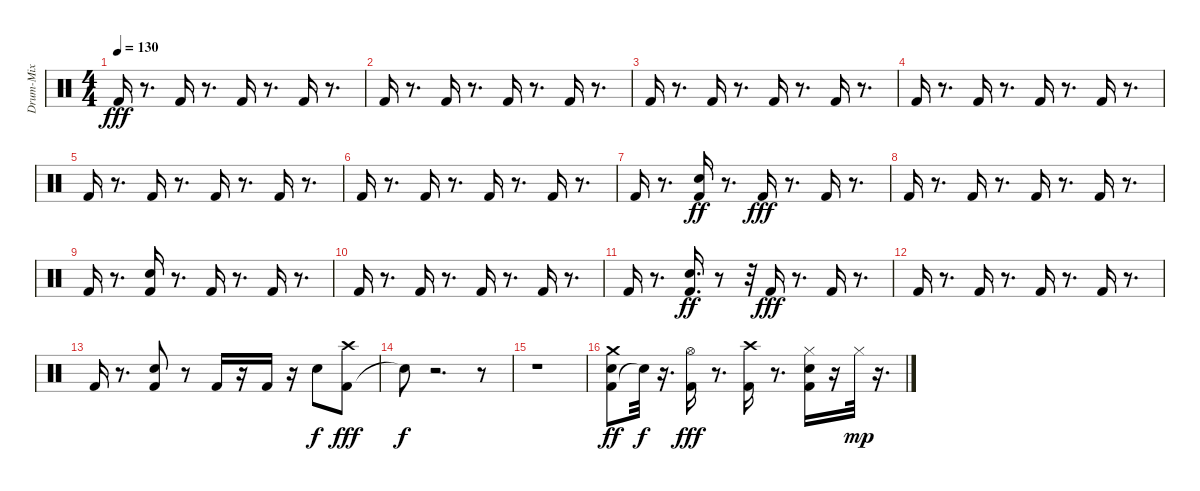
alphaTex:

\track ("Drum-Mix" "Drum-Mix") {instrument percussion}
\staff {score}
\articulation defaults
\ts (4 4)
\tempo 130
\clef neutral
\ks c "Kick (hit) 2".16{dy fff}
r.8{d} "Kick (hit) 2".16 r.8{d} "Kick (hit) 2".16 r.8{d} "Kick (hit) 2".16 r.8{d} |
"Kick (hit) 2".16 r.8{d} "Kick (hit) 2".16 r.8{d} "Kick (hit) 2".16 r.8{d} "Kick (hit) 2".16 r.8{d} |
"Kick (hit) 2".16 r.8{d} "Kick (hit) 2".16 r.8{d} "Kick (hit) 2".16 r.8{d} "Kick (hit) 2".16 r.8{d} |
"Kick (hit) 2".16 r.8{d} "Kick (hit) 2".16 r.8{d} "Kick (hit) 2".16 r.8{d} "Kick (hit) 2".16 r.8{d} |
"Kick (hit) 2".16 r.8{d} "Kick (hit) 2".16 r.8{d} "Kick (hit) 2".16 r.8{d} "Kick (hit) 2".16 r.8{d} |
"Kick (hit) 2".16 r.8{d} "Kick (hit) 2".16 r.8{d} "Kick (hit) 2".16 r.8{d} "Kick (hit) 2".16 r.8{d} |
"Kick (hit) 2".16 r.8{d} ("Kick (hit) 2" "Snare (hit) 2").16{dy ff} r.8{d} "Kick (hit) 2".16{dy fff} r.8{d} "Kick (hit) 2".16 r.8{d} |
"Kick (hit) 2".16 r.8{d} "Kick (hit) 2".16 r.8{d} "Kick (hit) 2".16 r.8{d} "Kick (hit) 2".16 r.8{d} |
"Kick (hit) 2".16 r.8{d} ("Kick (hit) 2" "Snare (hit) 2").16 r.8{d} "Kick (hit) 2".16 r.8{d} "Kick (hit) 2".16 r.8{d} |
"Kick (hit) 2".16 r.8{d} "Kick (hit) 2".16 r.8{d} "Kick (hit) 2".16 r.8{d} "Kick (hit) 2".16 r.8{d} |
"Kick (hit) 2".16 r.8{d} ("Kick (hit) 2" "Snare (hit) 2").16{d dy ff} r.8 r.32 "Kick (hit) 2".16{dy fff} r.8{d} "Kick (hit) 2".16 r.8{d} |
"Kick (hit) 2".16 r.8{d} "Kick (hit) 2".16 r.8{d} "Kick (hit) 2".16 r.8{d} "Kick (hit) 2".16 r.8{d} |
"Kick (hit) 2".16 r.8{d} ("Kick (hit) 2" "Snare (hit) 2").8 r.8 "Kick (hit) 2".16 r.16 "Kick (hit) 2".16 r.16 "Snare (hit) 2".8{dy f} ("Kick (hit) 2" "Crash high (hit)").8{dy fff} |
"Snare (hit)"{t}.8{dy f} r.2{d} r.8 |
r.1 |
("Kick (hit) 2" "Snare (hit) 2" "Crash medium (hit)").8{dy ff} "Snare (hit)"{t}.32{dy f} r.16{d} ("Kick (hit) 2" "Hi-Hat (open)").16{dy fff} r.8{d} ("Kick (hit) 2" "Crash high (hit)").16 r.8{d} ("Kick (hit) 2" "Snare (hit) 2" "Hi-Hat (closed)").16 r.16 "Hi-Hat (closed)".32{dy mp} r.16{d}
